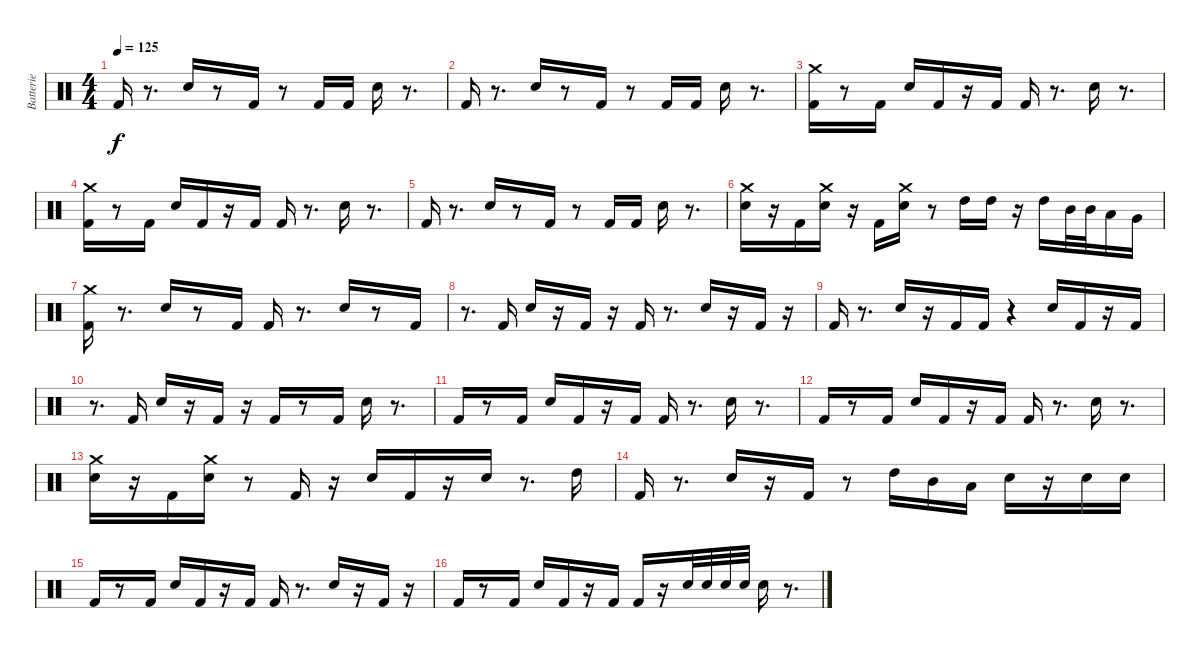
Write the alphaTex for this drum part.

\track ("Batterie" "Batterie") {instrument percussion}
\staff {score}
\articulation defaults
\ts (4 4)
\tempo 125
\clef neutral
\ks c "Kick (hit) 2".16{dy f}
r.8{d} "Snare (hit) 2".16 r.8 "Kick (hit) 2".16 r.8 "Kick (hit) 2".16 "Kick (hit) 2".16 "Snare (hit) 2".16 r.8{d} |
"Kick (hit) 2".16 r.8{d} "Snare (hit) 2".16 r.8 "Kick (hit) 2".16 r.8 "Kick (hit) 2".16 "Kick (hit) 2".16 "Snare (hit) 2".16 r.8{d} |
("Kick (hit) 2" "Crash medium (hit)").16 r.8 "Kick (hit) 2".16 "Snare (hit) 2".16 "Kick (hit) 2".16 r.16 "Kick (hit) 2".16 "Kick (hit) 2".16 r.8{d} "Snare (hit) 2".16 r.8{d} |
("Kick (hit) 2" "Crash medium (hit)").16 r.8 "Kick (hit) 2".16 "Snare (hit) 2".16 "Kick (hit) 2".16 r.16 "Kick (hit) 2".16 "Kick (hit) 2".16 r.8{d} "Snare (hit) 2".16 r.8{d} |
"Kick (hit) 2".16 r.8{d} "Snare (hit) 2".16 r.8 "Kick (hit) 2".16 r.8 "Kick (hit) 2".16 "Kick (hit) 2".16 "Snare (hit) 2".16 r.8{d} |
("Snare (hit) 2" "Crash medium (hit)").16 r.16 "Kick (hit) 2".16 ("Snare (hit) 2" "Crash medium (hit)").16 r.16 "Kick (hit) 2".16 ("Snare (hit) 2" "Crash medium (hit)").16 r.8 "High Tom (hit)".16 "High Tom (hit)".16 r.16 "High Tom (hit)".16 "Mid Tom (hit)".32 "Mid Tom (hit)".32 "Low Tom (hit)".16 "Very Low Tom (hit)".16 |
("Crash medium (hit)" "Kick (hit) 2").16 r.8{d} "Snare (hit) 2".16 r.8 "Kick (hit) 2".16 "Kick (hit) 2".16 r.8{d} "Snare (hit) 2".16 r.8 "Kick (hit) 2".16 |
r.8{d} "Kick (hit) 2".16 "Snare (hit) 2".16 r.16 "Kick (hit) 2".16 r.16 "Kick (hit) 2".16 r.8{d} "Snare (hit) 2".16 r.16 "Kick (hit) 2".16 r.16 |
"Kick (hit) 2".16 r.8{d} "Snare (hit) 2".16 r.16 "Kick (hit) 2".16 "Kick (hit) 2".16 r.4 "Snare (hit) 2".16 "Kick (hit) 2".16 r.16 "Kick (hit) 2".16 |
r.8{d} "Kick (hit) 2".16 "Snare (hit) 2".16 r.16 "Kick (hit) 2".16 r.16 "Kick (hit) 2".16 r.8 "Kick (hit) 2".16 "Snare (hit) 2".16 r.8{d} |
"Kick (hit) 2".16 r.8 "Kick (hit) 2".16 "Snare (hit) 2".16 "Kick (hit) 2".16 r.16 "Kick (hit) 2".16 "Kick (hit) 2".16 r.8{d} "Snare (hit) 2".16 r.8{d} |
"Kick (hit) 2".16 r.8 "Kick (hit) 2".16 "Snare (hit) 2".16 "Kick (hit) 2".16 r.16 "Kick (hit) 2".16 "Kick (hit) 2".16 r.8{d} "Snare (hit) 2".16 r.8{d} |
("Crash medium (hit)" "Snare (hit) 2").16 r.16 "Kick (hit) 2".16 ("Crash medium (hit)" "Snare (hit) 2").16 r.8 "Kick (hit) 2".16 r.16 "Snare (hit) 2".16 "Kick (hit) 2".16 r.16 "Snare (hit) 2".16 r.8{d} "High Tom (hit)".16 |
"Kick (hit) 2".16 r.8{d} "Snare (hit) 2".16 r.16 "Kick (hit) 2".16 r.8 "High Tom (hit)".16 "Mid Tom (hit)".16 "Low Tom (hit)".16 "Snare (hit) 2".16 r.16 "Snare (hit) 2".16 "Snare (hit) 2".16 |
"Kick (hit) 2".16 r.8 "Kick (hit) 2".16 "Snare (hit) 2".16 "Kick (hit) 2".16 r.16 "Kick (hit) 2".16 "Kick (hit) 2".16 r.8{d} "Snare (hit) 2".16 r.16 "Kick (hit) 2".16 r.16 |
"Kick (hit) 2".16 r.8 "Kick (hit) 2".16 "Snare (hit) 2".16 "Kick (hit) 2".16 r.16 "Kick (hit) 2".16 "Kick (hit) 2".16 r.16 "Snare (hit) 2".32 "Snare (hit) 2".32 "Snare (hit) 2".32 "Snare (hit) 2".32 "Snare (hit) 2".16 r.8{d}
